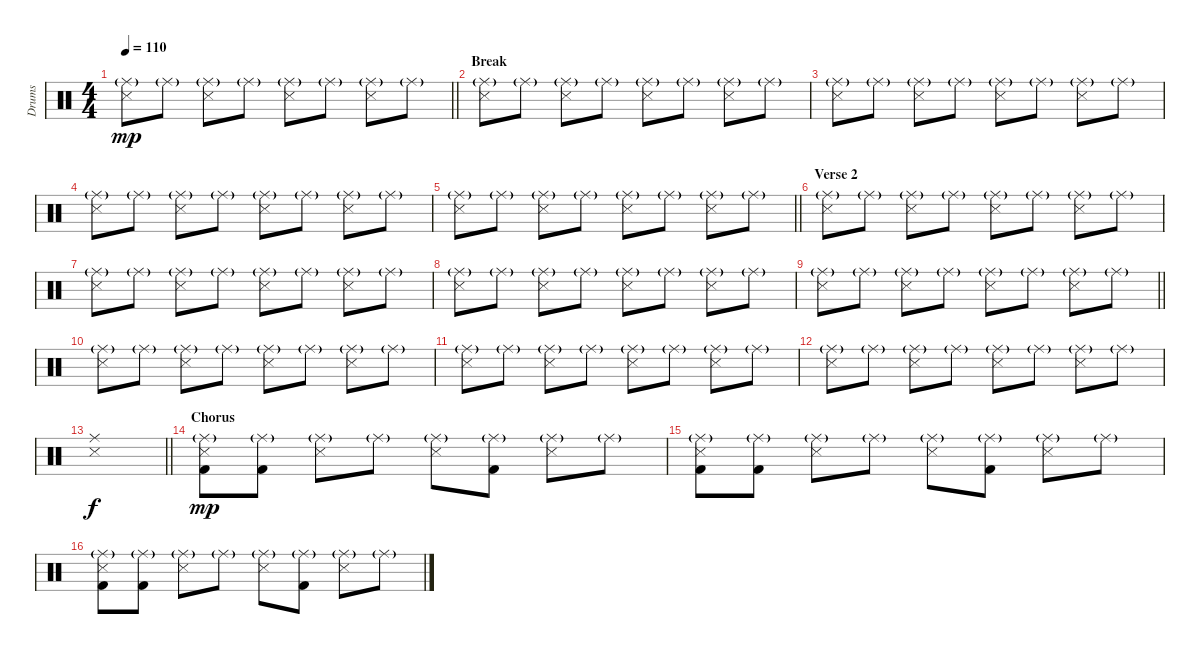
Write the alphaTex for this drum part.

\track ("Drums" "Drums") {instrument percussion}
\staff {score}
\articulation defaults
\ts (4 4)
\tempo 110
\clef neutral
\barLineRight lightlight
\ks c
("Snare (side stick) 3" "Ride (middle)"{g}).8{dy mp} "Ride (middle)"{g}.8 ("Snare (side stick) 3" "Ride (middle)"{g}).8 "Ride (middle)"{g}.8 ("Snare (side stick) 3" "Ride (middle)"{g}).8 "Ride (middle)"{g}.8 ("Snare (side stick) 3" "Ride (middle)"{g}).8 "Ride (middle)"{g}.8 |
\section ("" "Break")
("Snare (side stick) 3" "Ride (middle)"{g}).8 "Ride (middle)"{g}.8 ("Snare (side stick) 3" "Ride (middle)"{g}).8 "Ride (middle)"{g}.8 ("Snare (side stick) 3" "Ride (middle)"{g}).8 "Ride (middle)"{g}.8 ("Snare (side stick) 3" "Ride (middle)"{g}).8 "Ride (middle)"{g}.8 |
("Snare (side stick) 3" "Ride (middle)"{g}).8 "Ride (middle)"{g}.8 ("Snare (side stick) 3" "Ride (middle)"{g}).8 "Ride (middle)"{g}.8 ("Snare (side stick) 3" "Ride (middle)"{g}).8 "Ride (middle)"{g}.8 ("Snare (side stick) 3" "Ride (middle)"{g}).8 "Ride (middle)"{g}.8 |
("Snare (side stick) 3" "Ride (middle)"{g}).8 "Ride (middle)"{g}.8 ("Snare (side stick) 3" "Ride (middle)"{g}).8 "Ride (middle)"{g}.8 ("Snare (side stick) 3" "Ride (middle)"{g}).8 "Ride (middle)"{g}.8 ("Snare (side stick) 3" "Ride (middle)"{g}).8 "Ride (middle)"{g}.8 |
\barLineRight lightlight
("Snare (side stick) 3" "Ride (middle)"{g}).8 "Ride (middle)"{g}.8 ("Snare (side stick) 3" "Ride (middle)"{g}).8 "Ride (middle)"{g}.8 ("Snare (side stick) 3" "Ride (middle)"{g}).8 "Ride (middle)"{g}.8 ("Snare (side stick) 3" "Ride (middle)"{g}).8 "Ride (middle)"{g}.8 |
\section ("" "Verse 2")
("Snare (side stick) 3" "Ride (middle)"{g}).8 "Ride (middle)"{g}.8 ("Snare (side stick) 3" "Ride (middle)"{g}).8 "Ride (middle)"{g}.8 ("Snare (side stick) 3" "Ride (middle)"{g}).8 "Ride (middle)"{g}.8 ("Snare (side stick) 3" "Ride (middle)"{g}).8 "Ride (middle)"{g}.8 |
("Snare (side stick) 3" "Ride (middle)"{g}).8 "Ride (middle)"{g}.8 ("Snare (side stick) 3" "Ride (middle)"{g}).8 "Ride (middle)"{g}.8 ("Snare (side stick) 3" "Ride (middle)"{g}).8 "Ride (middle)"{g}.8 ("Snare (side stick) 3" "Ride (middle)"{g}).8 "Ride (middle)"{g}.8 |
("Snare (side stick) 3" "Ride (middle)"{g}).8 "Ride (middle)"{g}.8 ("Snare (side stick) 3" "Ride (middle)"{g}).8 "Ride (middle)"{g}.8 ("Snare (side stick) 3" "Ride (middle)"{g}).8 "Ride (middle)"{g}.8 ("Snare (side stick) 3" "Ride (middle)"{g}).8 "Ride (middle)"{g}.8 |
\barLineRight lightlight
("Snare (side stick) 3" "Ride (middle)"{g}).8 "Ride (middle)"{g}.8 ("Snare (side stick) 3" "Ride (middle)"{g}).8 "Ride (middle)"{g}.8 ("Snare (side stick) 3" "Ride (middle)"{g}).8 "Ride (middle)"{g}.8 ("Snare (side stick) 3" "Ride (middle)"{g}).8 "Ride (middle)"{g}.8 |
("Snare (side stick) 3" "Ride (middle)"{g}).8 "Ride (middle)"{g}.8 ("Snare (side stick) 3" "Ride (middle)"{g}).8 "Ride (middle)"{g}.8 ("Snare (side stick) 3" "Ride (middle)"{g}).8 "Ride (middle)"{g}.8 ("Snare (side stick) 3" "Ride (middle)"{g}).8 "Ride (middle)"{g}.8 |
("Snare (side stick) 3" "Ride (middle)"{g}).8 "Ride (middle)"{g}.8 ("Snare (side stick) 3" "Ride (middle)"{g}).8 "Ride (middle)"{g}.8 ("Snare (side stick) 3" "Ride (middle)"{g}).8 "Ride (middle)"{g}.8 ("Snare (side stick) 3" "Ride (middle)"{g}).8 "Ride (middle)"{g}.8 |
("Snare (side stick) 3" "Ride (middle)"{g}).8 "Ride (middle)"{g}.8 ("Snare (side stick) 3" "Ride (middle)"{g}).8 "Ride (middle)"{g}.8 ("Snare (side stick) 3" "Ride (middle)"{g}).8 "Ride (middle)"{g}.8 ("Snare (side stick) 3" "Ride (middle)"{g}).8 "Ride (middle)"{g}.8 |
\barLineRight lightlight
("Snare (side stick) 3" "Ride (middle)").1{dy f} |
\section ("" "Chorus")
("Snare (side stick) 3" "Ride (middle)"{g} "Kick (hit) 2").8{dy mp} ("Ride (middle)"{g} "Kick (hit) 2").8 ("Snare (side stick) 3" "Ride (middle)"{g}).8 "Ride (middle)"{g}.8 ("Snare (side stick) 3" "Ride (middle)"{g}).8 ("Ride (middle)"{g} "Kick (hit) 2").8 ("Snare (side stick) 3" "Ride (middle)"{g}).8 "Ride (middle)"{g}.8 |
("Snare (side stick) 3" "Ride (middle)"{g} "Kick (hit) 2").8 ("Ride (middle)"{g} "Kick (hit) 2").8 ("Snare (side stick) 3" "Ride (middle)"{g}).8 "Ride (middle)"{g}.8 ("Snare (side stick) 3" "Ride (middle)"{g}).8 ("Ride (middle)"{g} "Kick (hit) 2").8 ("Snare (side stick) 3" "Ride (middle)"{g}).8 "Ride (middle)"{g}.8 |
("Snare (side stick) 3" "Ride (middle)"{g} "Kick (hit) 2").8 ("Ride (middle)"{g} "Kick (hit) 2").8 ("Snare (side stick) 3" "Ride (middle)"{g}).8 "Ride (middle)"{g}.8 ("Snare (side stick) 3" "Ride (middle)"{g}).8 ("Ride (middle)"{g} "Kick (hit) 2").8 ("Snare (side stick) 3" "Ride (middle)"{g}).8 "Ride (middle)"{g}.8
